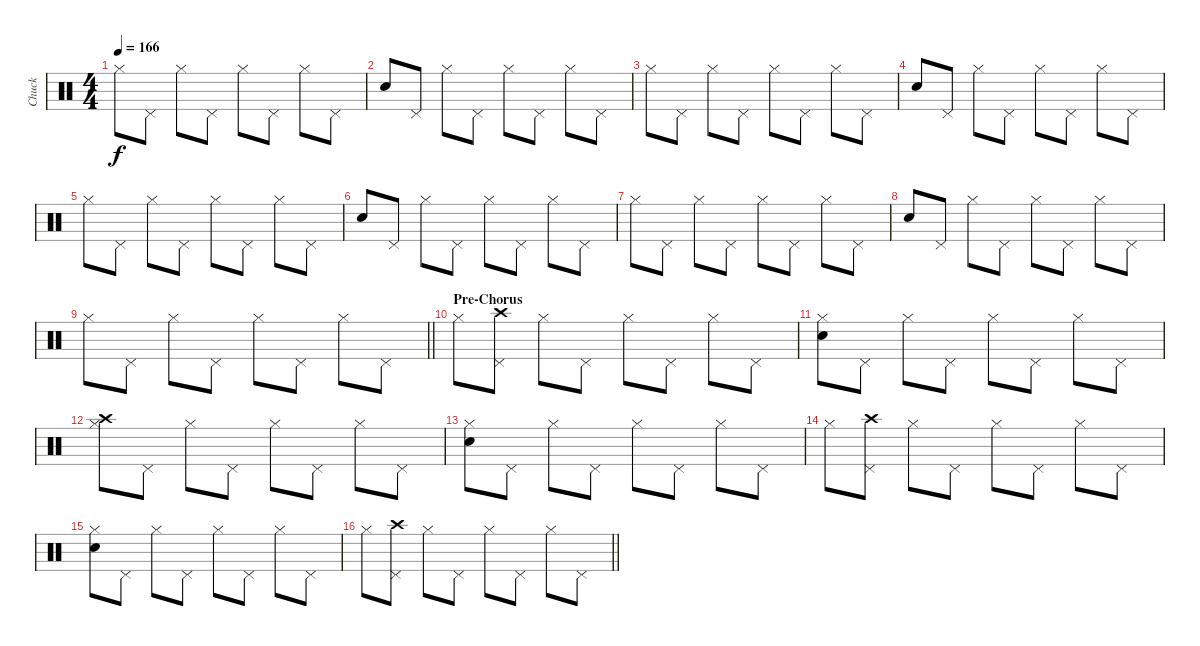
\track ("Chuck" "Chuck") {instrument percussion}
\staff {score}
\articulation defaults
\ts (4 4)
\tempo 166
\clef neutral
\ks c "Hi-Hat (closed)".8{dy f} "Pedal Hi-Hat (hit)".8 "Hi-Hat (closed)".8 "Pedal Hi-Hat (hit)".8 "Hi-Hat (closed)".8 "Pedal Hi-Hat (hit)".8 "Hi-Hat (closed)".8 "Pedal Hi-Hat (hit)".8
|
"Hand Clap (hit)".8 "Pedal Hi-Hat (hit)".8 "Hi-Hat (closed)".8 "Pedal Hi-Hat (hit)".8 "Hi-Hat (closed)".8 "Pedal Hi-Hat (hit)".8 "Hi-Hat (closed)".8 "Pedal Hi-Hat (hit)".8 |
"Hi-Hat (closed)".8 "Pedal Hi-Hat (hit)".8 "Hi-Hat (closed)".8 "Pedal Hi-Hat (hit)".8 "Hi-Hat (closed)".8 "Pedal Hi-Hat (hit)".8 "Hi-Hat (closed)".8 "Pedal Hi-Hat (hit)".8 |
"Hand Clap (hit)".8 "Pedal Hi-Hat (hit)".8 "Hi-Hat (closed)".8 "Pedal Hi-Hat (hit)".8 "Hi-Hat (closed)".8 "Pedal Hi-Hat (hit)".8 "Hi-Hat (closed)".8 "Pedal Hi-Hat (hit)".8 |
"Hi-Hat (closed)".8 "Pedal Hi-Hat (hit)".8 "Hi-Hat (closed)".8 "Pedal Hi-Hat (hit)".8 "Hi-Hat (closed)".8 "Pedal Hi-Hat (hit)".8 "Hi-Hat (closed)".8 "Pedal Hi-Hat (hit)".8 |
"Hand Clap (hit)".8 "Pedal Hi-Hat (hit)".8 "Hi-Hat (closed)".8 "Pedal Hi-Hat (hit)".8 "Hi-Hat (closed)".8 "Pedal Hi-Hat (hit)".8 "Hi-Hat (closed)".8 "Pedal Hi-Hat (hit)".8 |
"Hi-Hat (closed)".8 "Pedal Hi-Hat (hit)".8 "Hi-Hat (closed)".8 "Pedal Hi-Hat (hit)".8 "Hi-Hat (closed)".8 "Pedal Hi-Hat (hit)".8 "Hi-Hat (closed)".8 "Pedal Hi-Hat (hit)".8 |
"Hand Clap (hit)".8 "Pedal Hi-Hat (hit)".8 "Hi-Hat (closed)".8 "Pedal Hi-Hat (hit)".8 "Hi-Hat (closed)".8 "Pedal Hi-Hat (hit)".8 "Hi-Hat (closed)".8 "Pedal Hi-Hat (hit)".8 |
\barLineRight lightlight "Hi-Hat (closed)".8 "Pedal Hi-Hat (hit)".8 "Hi-Hat (closed)".8 "Pedal Hi-Hat (hit)".8 "Hi-Hat (closed)".8 "Pedal Hi-Hat (hit)".8 "Hi-Hat (closed)".8 "Pedal Hi-Hat (hit)".8
|
\section ("" "Pre-Chorus")
"Hi-Hat (closed)".8 ("Pedal Hi-Hat (hit)" "Crash high (hit)").8 "Hi-Hat (closed)".8 "Pedal Hi-Hat (hit)".8 "Hi-Hat (closed)".8 "Pedal Hi-Hat (hit)".8 "Hi-Hat (closed)".8 "Pedal Hi-Hat (hit)".8 |
("Hi-Hat (closed)" "Hand Clap (hit)").8 "Pedal Hi-Hat (hit)".8 "Hi-Hat (closed)".8 "Pedal Hi-Hat (hit)".8 "Hi-Hat (closed)".8 "Pedal Hi-Hat (hit)".8 "Hi-Hat (closed)".8 "Pedal Hi-Hat (hit)".8 |
("Hi-Hat (closed)" "Crash high (hit)").8 "Pedal Hi-Hat (hit)".8 "Hi-Hat (closed)".8 "Pedal Hi-Hat (hit)".8 "Hi-Hat (closed)".8 "Pedal Hi-Hat (hit)".8 "Hi-Hat (closed)".8 "Pedal Hi-Hat (hit)".8 |
("Hi-Hat (closed)" "Hand Clap (hit)").8 "Pedal Hi-Hat (hit)".8 "Hi-Hat (closed)".8 "Pedal Hi-Hat (hit)".8 "Hi-Hat (closed)".8 "Pedal Hi-Hat (hit)".8 "Hi-Hat (closed)".8 "Pedal Hi-Hat (hit)".8 |
"Hi-Hat (closed)".8 ("Pedal Hi-Hat (hit)" "Crash high (hit)").8 "Hi-Hat (closed)".8 "Pedal Hi-Hat (hit)".8 "Hi-Hat (closed)".8 "Pedal Hi-Hat (hit)".8 "Hi-Hat (closed)".8 "Pedal Hi-Hat (hit)".8 |
("Hi-Hat (closed)" "Hand Clap (hit)").8 "Pedal Hi-Hat (hit)".8 "Hi-Hat (closed)".8 "Pedal Hi-Hat (hit)".8 "Hi-Hat (closed)".8 "Pedal Hi-Hat (hit)".8 "Hi-Hat (closed)".8 "Pedal Hi-Hat (hit)".8 |
\barLineRight lightlight "Hi-Hat (closed)".8
("Pedal Hi-Hat (hit)" "Crash high (hit)").8 "Hi-Hat (closed)".8 "Pedal Hi-Hat (hit)".8 "Hi-Hat (closed)".8 "Pedal Hi-Hat (hit)".8 "Hi-Hat (closed)".8 "Pedal Hi-Hat (hit)".8
